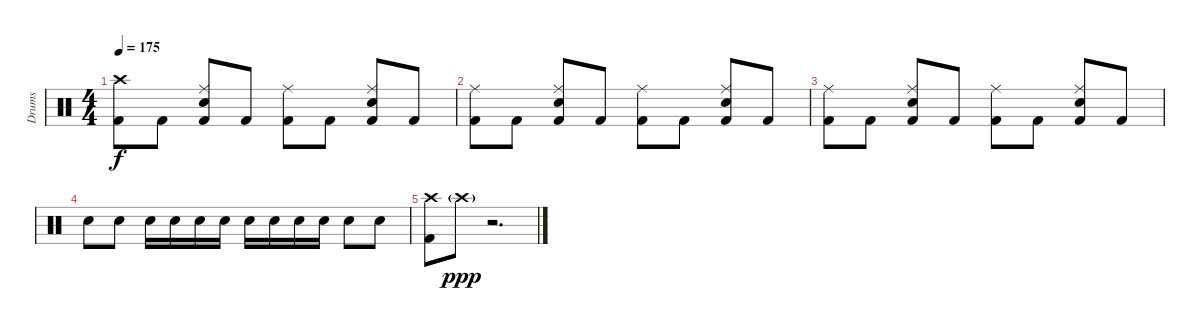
\track ("Drums" "Drums") {instrument percussion}
\staff {score}
\articulation defaults
\ts (4 4)
\tempo 175
\clef neutral
\ks c
("Crash high (hit)" "Kick (hit) 2").8{dy f} "Kick (hit) 2".8 ("Ride (middle)" "Electric Snare (hit)" "Kick (hit) 2").8 "Kick (hit) 2".8 ("Ride (middle)" "Kick (hit) 2").8 "Kick (hit) 2".8 ("Ride (middle)" "Electric Snare (hit)" "Kick (hit) 2").8 "Kick (hit) 2".8 |
("Ride (middle)" "Kick (hit) 2").8 "Kick (hit) 2".8 ("Ride (middle)" "Electric Snare (hit)" "Kick (hit) 2").8 "Kick (hit) 2".8 ("Ride (middle)" "Kick (hit) 2").8 "Kick (hit) 2".8 ("Ride (middle)" "Electric Snare (hit)" "Kick (hit) 2").8 "Kick (hit) 2".8 |
("Ride (middle)" "Kick (hit) 2").8 "Kick (hit) 2".8 ("Ride (middle)" "Electric Snare (hit)" "Kick (hit) 2").8 "Kick (hit) 2".8 ("Ride (middle)" "Kick (hit) 2").8 "Kick (hit) 2".8 ("Ride (middle)" "Electric Snare (hit)" "Kick (hit) 2").8 "Kick (hit) 2".8 |
"Electric Snare (hit)".8 "Electric Snare (hit)".8 "Electric Snare (hit)".16 "Electric Snare (hit)".16 "Electric Snare (hit)".16 "Electric Snare (hit)".16 "Electric Snare (hit)".16 "Electric Snare (hit)".16 "Electric Snare (hit)".16 "Electric Snare (hit)".16 "Electric Snare (hit)".8 "Electric Snare (hit)".8 |
("Crash high (hit)" "Kick (hit) 2").8 "Crash high (hit)"{g}.8{dy ppp} r.2{d}
